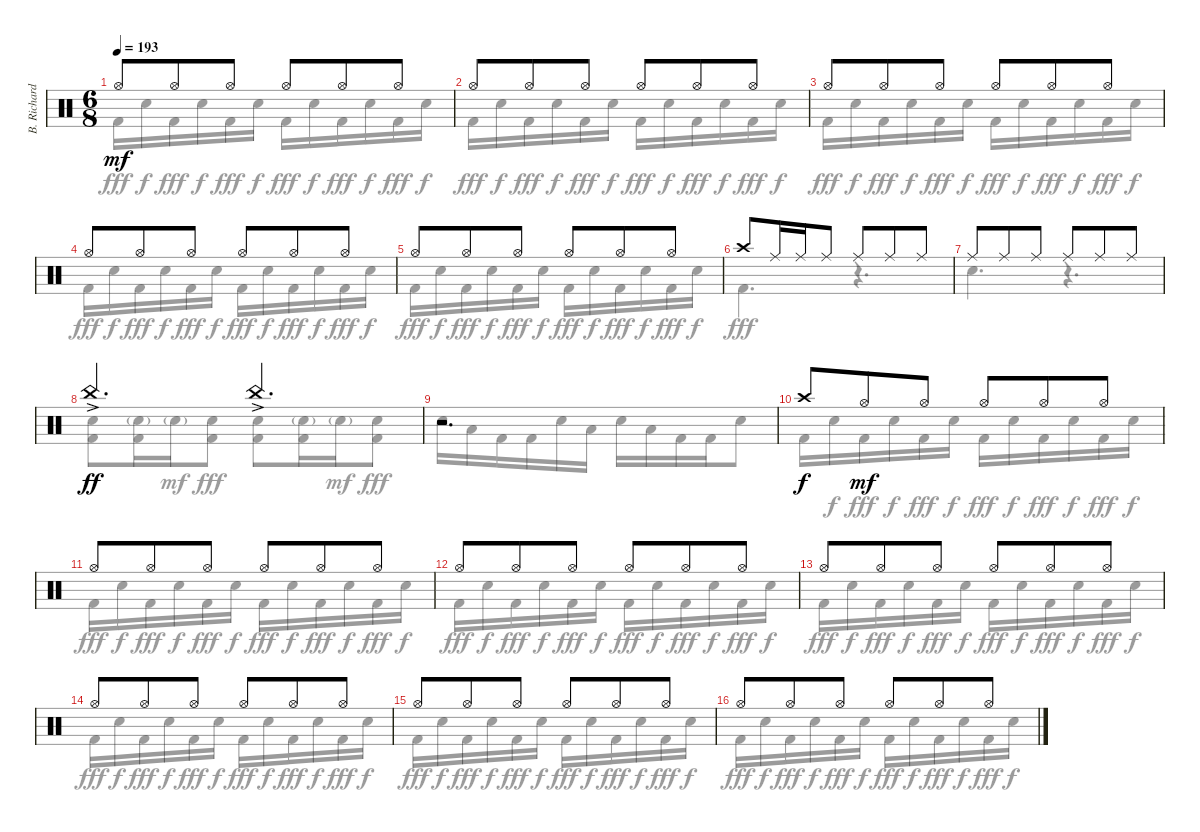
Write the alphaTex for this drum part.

\track ("B. Richardson Drums" "B. Richard") {instrument percussion}
\staff {score}
\articulation defaults
\voice
\ts (6 8)
\tempo 193
\clef neutral
\ks c "Hi-Hat (open)".8{dy mf} "Hi-Hat (open)".8 "Hi-Hat (open)".8 "Hi-Hat (open)".8 "Hi-Hat (open)".8 "Hi-Hat (open)".8
|
"Hi-Hat (open)".8 "Hi-Hat (open)".8 "Hi-Hat (open)".8 "Hi-Hat (open)".8 "Hi-Hat (open)".8 "Hi-Hat (open)".8 |
"Hi-Hat (open)".8 "Hi-Hat (open)".8 "Hi-Hat (open)".8 "Hi-Hat (open)".8 "Hi-Hat (open)".8 "Hi-Hat (open)".8 |
"Hi-Hat (open)".8 "Hi-Hat (open)".8 "Hi-Hat (open)".8 "Hi-Hat (open)".8 "Hi-Hat (open)".8 "Hi-Hat (open)".8 |
"Hi-Hat (open)".8 "Hi-Hat (open)".8 "Hi-Hat (open)".8 "Hi-Hat (open)".8 "Hi-Hat (open)".8 "Hi-Hat (open)".8 |
"Crash high (hit)".8 "Ride (middle)".16 "Ride (middle)".16 "Ride (middle)".8 "Ride (middle)".8 "Ride (middle)".8 "Ride (middle)".8 |
"Ride (middle)".8 "Ride (middle)".8 "Ride (middle)".8 "Ride (middle)".8 "Ride (middle)".8 "Ride (middle)".8 |
"China (hit)"{ac}.4{d dy ff} "China (hit)"{ac}.4{d} |
r.2{d} |
"Crash high (hit)".8{dy f} "Hi-Hat (open)".8{dy mf} "Hi-Hat (open)".8 "Hi-Hat (open)".8 "Hi-Hat (open)".8 "Hi-Hat (open)".8 |
"Hi-Hat (open)".8 "Hi-Hat (open)".8 "Hi-Hat (open)".8 "Hi-Hat (open)".8 "Hi-Hat (open)".8 "Hi-Hat (open)".8 |
"Hi-Hat (open)".8 "Hi-Hat (open)".8 "Hi-Hat (open)".8 "Hi-Hat (open)".8 "Hi-Hat (open)".8 "Hi-Hat (open)".8 |
"Hi-Hat (open)".8 "Hi-Hat (open)".8 "Hi-Hat (open)".8 "Hi-Hat (open)".8 "Hi-Hat (open)".8 "Hi-Hat (open)".8 |
"Hi-Hat (open)".8 "Hi-Hat (open)".8 "Hi-Hat (open)".8 "Hi-Hat (open)".8 "Hi-Hat (open)".8 "Hi-Hat (open)".8 |
"Hi-Hat (open)".8 "Hi-Hat (open)".8 "Hi-Hat (open)".8 "Hi-Hat (open)".8 "Hi-Hat (open)".8 "Hi-Hat (open)".8 |
"Hi-Hat (open)".8 "Hi-Hat (open)".8 "Hi-Hat (open)".8 "Hi-Hat (open)".8 "Hi-Hat (open)".8 "Hi-Hat (open)".8
\voice
\clef neutral
\ottava regular
\simile none
\ks c "Kick (hit) 2".16{dy fff} "Electric Snare (hit)".16{dy f} "Kick (hit) 2".16{dy fff} "Electric Snare (hit)".16{dy f} "Kick (hit) 2".16{dy fff} "Electric Snare (hit)".16{dy f} "Kick (hit) 2".16{dy fff} "Electric Snare (hit)".16{dy f} "Kick (hit) 2".16{dy fff} "Electric Snare (hit)".16{dy f} "Kick (hit) 2".16{dy fff} "Electric Snare (hit)".16{dy f}
|
"Kick (hit) 2".16{dy fff} "Electric Snare (hit)".16{dy f} "Kick (hit) 2".16{dy fff} "Electric Snare (hit)".16{dy f} "Kick (hit) 2".16{dy fff} "Electric Snare (hit)".16{dy f} "Kick (hit) 2".16{dy fff} "Electric Snare (hit)".16{dy f} "Kick (hit) 2".16{dy fff} "Electric Snare (hit)".16{dy f} "Kick (hit) 2".16{dy fff} "Electric Snare (hit)".16{dy f} |
"Kick (hit) 2".16{dy fff} "Electric Snare (hit)".16{dy f} "Kick (hit) 2".16{dy fff} "Electric Snare (hit)".16{dy f} "Kick (hit) 2".16{dy fff} "Electric Snare (hit)".16{dy f} "Kick (hit) 2".16{dy fff} "Electric Snare (hit)".16{dy f} "Kick (hit) 2".16{dy fff} "Electric Snare (hit)".16{dy f} "Kick (hit) 2".16{dy fff} "Electric Snare (hit)".16{dy f} |
"Kick (hit) 2".16{dy fff} "Electric Snare (hit)".16{dy f} "Kick (hit) 2".16{dy fff} "Electric Snare (hit)".16{dy f} "Kick (hit) 2".16{dy fff} "Electric Snare (hit)".16{dy f} "Kick (hit) 2".16{dy fff} "Electric Snare (hit)".16{dy f} "Kick (hit) 2".16{dy fff} "Electric Snare (hit)".16{dy f} "Kick (hit) 2".16{dy fff} "Electric Snare (hit)".16{dy f} |
"Kick (hit) 2".16{dy fff} "Electric Snare (hit)".16{dy f} "Kick (hit) 2".16{dy fff} "Electric Snare (hit)".16{dy f} "Kick (hit) 2".16{dy fff} "Electric Snare (hit)".16{dy f} "Kick (hit) 2".16{dy fff} "Electric Snare (hit)".16{dy f} "Kick (hit) 2".16{dy fff} "Electric Snare (hit)".16{dy f} "Kick (hit) 2".16{dy fff} "Electric Snare (hit)".16{dy f} |
"Kick (hit) 2".4{d dy fff} r.4{d} |
"Electric Snare (hit)".4{d} r.4{d} |
("Electric Snare (hit)" "Kick (hit) 2").8 ("Electric Snare (hit)"{g} "Kick (hit) 2").16 "Electric Snare (hit)"{g}.16{dy mf} ("Electric Snare (hit)" "Kick (hit) 2").8{dy fff} ("Electric Snare (hit)" "Kick (hit) 2").8 ("Electric Snare (hit)"{g} "Kick (hit) 2").16 "Electric Snare (hit)"{g}.16{dy mf} ("Electric Snare (hit)" "Kick (hit) 2").8{dy fff} |
"Electric Snare (hit)".16 "Low Tom (hit)".16 "Kick (hit) 2".16 "Kick (hit) 2".16 "Electric Snare (hit)".16 "Low Tom (hit)".16 "Electric Snare (hit)".16 "Low Tom (hit)".16 "Kick (hit) 2".16 "Kick (hit) 2".16 "Electric Snare (hit)".8 |
"Kick (hit) 2".16 "Electric Snare (hit)".16{dy f} "Kick (hit) 2".16{dy fff} "Electric Snare (hit)".16{dy f} "Kick (hit) 2".16{dy fff} "Electric Snare (hit)".16{dy f} "Kick (hit) 2".16{dy fff} "Electric Snare (hit)".16{dy f} "Kick (hit) 2".16{dy fff} "Electric Snare (hit)".16{dy f} "Kick (hit) 2".16{dy fff} "Electric Snare (hit)".16{dy f} |
"Kick (hit) 2".16{dy fff} "Electric Snare (hit)".16{dy f} "Kick (hit) 2".16{dy fff} "Electric Snare (hit)".16{dy f} "Kick (hit) 2".16{dy fff} "Electric Snare (hit)".16{dy f} "Kick (hit) 2".16{dy fff} "Electric Snare (hit)".16{dy f} "Kick (hit) 2".16{dy fff} "Electric Snare (hit)".16{dy f} "Kick (hit) 2".16{dy fff} "Electric Snare (hit)".16{dy f} |
"Kick (hit) 2".16{dy fff} "Electric Snare (hit)".16{dy f} "Kick (hit) 2".16{dy fff} "Electric Snare (hit)".16{dy f} "Kick (hit) 2".16{dy fff} "Electric Snare (hit)".16{dy f} "Kick (hit) 2".16{dy fff} "Electric Snare (hit)".16{dy f} "Kick (hit) 2".16{dy fff} "Electric Snare (hit)".16{dy f} "Kick (hit) 2".16{dy fff} "Electric Snare (hit)".16{dy f} |
"Kick (hit) 2".16{dy fff} "Electric Snare (hit)".16{dy f} "Kick (hit) 2".16{dy fff} "Electric Snare (hit)".16{dy f} "Kick (hit) 2".16{dy fff} "Electric Snare (hit)".16{dy f} "Kick (hit) 2".16{dy fff} "Electric Snare (hit)".16{dy f} "Kick (hit) 2".16{dy fff} "Electric Snare (hit)".16{dy f} "Kick (hit) 2".16{dy fff} "Electric Snare (hit)".16{dy f} |
"Kick (hit) 2".16{dy fff} "Electric Snare (hit)".16{dy f} "Kick (hit) 2".16{dy fff} "Electric Snare (hit)".16{dy f} "Kick (hit) 2".16{dy fff} "Electric Snare (hit)".16{dy f} "Kick (hit) 2".16{dy fff} "Electric Snare (hit)".16{dy f} "Kick (hit) 2".16{dy fff} "Electric Snare (hit)".16{dy f} "Kick (hit) 2".16{dy fff} "Electric Snare (hit)".16{dy f} |
"Kick (hit) 2".16{dy fff} "Electric Snare (hit)".16{dy f} "Kick (hit) 2".16{dy fff} "Electric Snare (hit)".16{dy f} "Kick (hit) 2".16{dy fff} "Electric Snare (hit)".16{dy f} "Kick (hit) 2".16{dy fff} "Electric Snare (hit)".16{dy f} "Kick (hit) 2".16{dy fff} "Electric Snare (hit)".16{dy f} "Kick (hit) 2".16{dy fff} "Electric Snare (hit)".16{dy f} |
"Kick (hit) 2".16{dy fff} "Electric Snare (hit)".16{dy f} "Kick (hit) 2".16{dy fff} "Electric Snare (hit)".16{dy f} "Kick (hit) 2".16{dy fff} "Electric Snare (hit)".16{dy f} "Kick (hit) 2".16{dy fff} "Electric Snare (hit)".16{dy f} "Kick (hit) 2".16{dy fff} "Electric Snare (hit)".16{dy f} "Kick (hit) 2".16{dy fff} "Electric Snare (hit)".16{dy f}
